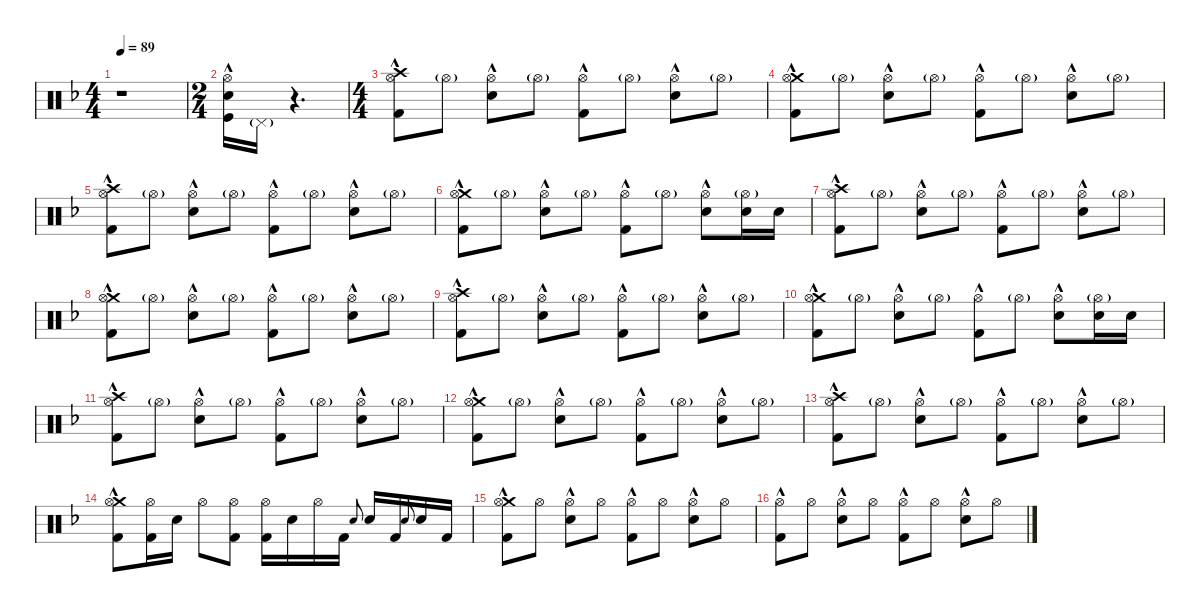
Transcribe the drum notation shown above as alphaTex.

\defaultSystemsLayout 4
\hideDynamics
\bracketExtendMode nobrackets
\singleTrackTrackNamePolicy hidden
\multiTrackTrackNamePolicy hidden
\firstSystemTrackNameMode fullname
\firstSystemTrackNameOrientation horizontal
\otherSystemsTrackNameOrientation horizontal
\track ("Martin Lopez - Drums" "drm.") {instrument percussion}
\staff {score}
\articulation defaults
\ts (4 4)
\beaming (8 2 2 2 2)
\tempo 89
\clef neutral
\ks f
r.1{dy mf beam Down} |
\ts (2 4)
\beaming (8 2 2 2 2)
("Hi-Hat (open)"{hac acc forcenatural} "Snare (hit) 2"{hac acc forcenatural} "Kick (hit)"{hac acc forcenatural}).16{beam Down} "Pedal Hi-Hat (hit)"{g acc forcenatural}.16{dy mp beam Down} r.4{d beam Down} |
\ts (4 4)
\beaming (8 2 2 2 2)
("Crash high (hit)"{acc forcenatural} "Hi-Hat (open)"{acc forcenatural} "Kick (hit) 2"{hac acc forcenatural}).8{dy mf beam Down} "Hi-Hat (open)"{g acc forcenatural}.8{dy mp beam Down} ("Hi-Hat (open)"{acc forcenatural} "Snare (hit) 2"{hac acc forcenatural}).8{dy mf beam Down} "Hi-Hat (open)"{g acc forcenatural}.8{dy mp beam Down} ("Hi-Hat (open)"{acc forcenatural} "Kick (hit) 2"{hac acc forcenatural}).8{dy mf beam Down} "Hi-Hat (open)"{g acc forcenatural}.8{dy mp beam Down} ("Hi-Hat (open)"{acc forcenatural} "Snare (hit) 2"{hac acc forcenatural}).8{dy mf beam Down} "Hi-Hat (open)"{g acc forcenatural}.8{dy mp beam Down} |
("Crash medium (hit)"{acc forcenatural} "Hi-Hat (open)"{acc forcenatural} "Kick (hit) 2"{hac acc forcenatural}).8{dy mf beam Down} "Hi-Hat (open)"{g acc forcenatural}.8{dy mp beam Down} ("Hi-Hat (open)"{acc forcenatural} "Snare (hit) 2"{hac acc forcenatural}).8{dy mf beam Down} "Hi-Hat (open)"{g acc forcenatural}.8{dy mp beam Down} ("Hi-Hat (open)"{acc forcenatural} "Kick (hit) 2"{hac acc forcenatural}).8{dy mf beam Down} "Hi-Hat (open)"{g acc forcenatural}.8{dy mp beam Down} ("Hi-Hat (open)"{acc forcenatural} "Snare (hit) 2"{hac acc forcenatural}).8{dy mf beam Down} "Hi-Hat (open)"{g acc forcenatural}.8{dy mp beam Down} |
("Crash high (hit)"{acc forcenatural} "Hi-Hat (open)"{acc forcenatural} "Kick (hit) 2"{hac acc forcenatural}).8{dy mf beam Down} "Hi-Hat (open)"{g acc forcenatural}.8{dy mp beam Down} ("Hi-Hat (open)"{acc forcenatural} "Snare (hit) 2"{hac acc forcenatural}).8{dy mf beam Down} "Hi-Hat (open)"{g acc forcenatural}.8{dy mp beam Down} ("Hi-Hat (open)"{acc forcenatural} "Kick (hit) 2"{hac acc forcenatural}).8{dy mf beam Down} "Hi-Hat (open)"{g acc forcenatural}.8{dy mp beam Down} ("Hi-Hat (open)"{acc forcenatural} "Snare (hit) 2"{hac acc forcenatural}).8{dy mf beam Down} "Hi-Hat (open)"{g acc forcenatural}.8{dy mp beam Down} |
("Crash medium (hit)"{acc forcenatural} "Hi-Hat (open)"{acc forcenatural} "Kick (hit) 2"{hac acc forcenatural}).8{dy mf beam Down} "Hi-Hat (open)"{g acc forcenatural}.8{dy mp beam Down} ("Hi-Hat (open)"{acc forcenatural} "Snare (hit) 2"{hac acc forcenatural}).8{dy mf beam Down} "Hi-Hat (open)"{g acc forcenatural}.8{dy mp beam Down} ("Hi-Hat (open)"{acc forcenatural} "Kick (hit) 2"{hac acc forcenatural}).8{dy mf beam Down} "Hi-Hat (open)"{g acc forcenatural}.8{dy mp beam Down} ("Hi-Hat (open)"{acc forcenatural} "Snare (hit) 2"{hac acc forcenatural}).8{dy mf beam Down} ("Hi-Hat (open)"{g acc forcenatural} "Snare (hit) 2"{acc forcenatural}).16{beam Down} "Snare (hit) 2"{acc forcenatural}.16{beam Down} |
("Crash high (hit)"{acc forcenatural} "Hi-Hat (open)"{acc forcenatural} "Kick (hit) 2"{hac acc forcenatural}).8{beam Down} "Hi-Hat (open)"{g acc forcenatural}.8{dy mp beam Down} ("Hi-Hat (open)"{acc forcenatural} "Snare (hit) 2"{hac acc forcenatural}).8{dy mf beam Down} "Hi-Hat (open)"{g acc forcenatural}.8{dy mp beam Down} ("Hi-Hat (open)"{acc forcenatural} "Kick (hit) 2"{hac acc forcenatural}).8{dy mf beam Down} "Hi-Hat (open)"{g acc forcenatural}.8{dy mp beam Down} ("Hi-Hat (open)"{acc forcenatural} "Snare (hit) 2"{hac acc forcenatural}).8{dy mf beam Down} "Hi-Hat (open)"{g acc forcenatural}.8{dy mp beam Down} |
("Crash medium (hit)"{acc forcenatural} "Hi-Hat (open)"{acc forcenatural} "Kick (hit) 2"{hac acc forcenatural}).8{dy mf beam Down} "Hi-Hat (open)"{g acc forcenatural}.8{dy mp beam Down} ("Hi-Hat (open)"{acc forcenatural} "Snare (hit) 2"{hac acc forcenatural}).8{dy mf beam Down} "Hi-Hat (open)"{g acc forcenatural}.8{dy mp beam Down} ("Hi-Hat (open)"{acc forcenatural} "Kick (hit) 2"{hac acc forcenatural}).8{dy mf beam Down} "Hi-Hat (open)"{g acc forcenatural}.8{dy mp beam Down} ("Hi-Hat (open)"{acc forcenatural} "Snare (hit) 2"{hac acc forcenatural}).8{dy mf beam Down} "Hi-Hat (open)"{g acc forcenatural}.8{dy mp beam Down} |
("Crash high (hit)"{acc forcenatural} "Hi-Hat (open)"{acc forcenatural} "Kick (hit) 2"{hac acc forcenatural}).8{dy mf beam Down} "Hi-Hat (open)"{g acc forcenatural}.8{dy mp beam Down} ("Hi-Hat (open)"{acc forcenatural} "Snare (hit) 2"{hac acc forcenatural}).8{dy mf beam Down} "Hi-Hat (open)"{g acc forcenatural}.8{dy mp beam Down} ("Hi-Hat (open)"{acc forcenatural} "Kick (hit) 2"{hac acc forcenatural}).8{dy mf beam Down} "Hi-Hat (open)"{g acc forcenatural}.8{dy mp beam Down} ("Hi-Hat (open)"{acc forcenatural} "Snare (hit) 2"{hac acc forcenatural}).8{dy mf beam Down} "Hi-Hat (open)"{g acc forcenatural}.8{dy mp beam Down} |
("Crash medium (hit)"{acc forcenatural} "Hi-Hat (open)"{acc forcenatural} "Kick (hit) 2"{hac acc forcenatural}).8{dy mf beam Down} "Hi-Hat (open)"{g acc forcenatural}.8{dy mp beam Down} ("Hi-Hat (open)"{acc forcenatural} "Snare (hit) 2"{hac acc forcenatural}).8{dy mf beam Down} "Hi-Hat (open)"{g acc forcenatural}.8{dy mp beam Down} ("Hi-Hat (open)"{acc forcenatural} "Kick (hit) 2"{hac acc forcenatural}).8{dy mf beam Down} "Hi-Hat (open)"{g acc forcenatural}.8{dy mp beam Down} ("Hi-Hat (open)"{acc forcenatural} "Snare (hit) 2"{hac acc forcenatural}).8{dy mf beam Down} ("Hi-Hat (open)"{g acc forcenatural} "Snare (hit) 2"{acc forcenatural}).16{beam Down} "Snare (hit) 2"{acc forcenatural}.16{beam Down} |
("Crash high (hit)"{acc forcenatural} "Hi-Hat (open)"{acc forcenatural} "Kick (hit) 2"{hac acc forcenatural}).8{beam Down} "Hi-Hat (open)"{g acc forcenatural}.8{dy mp beam Down} ("Hi-Hat (open)"{acc forcenatural} "Snare (hit) 2"{hac acc forcenatural}).8{dy mf beam Down} "Hi-Hat (open)"{g acc forcenatural}.8{dy mp beam Down} ("Hi-Hat (open)"{acc forcenatural} "Kick (hit) 2"{hac acc forcenatural}).8{dy mf beam Down} "Hi-Hat (open)"{g acc forcenatural}.8{dy mp beam Down} ("Hi-Hat (open)"{acc forcenatural} "Snare (hit) 2"{hac acc forcenatural}).8{dy mf beam Down} "Hi-Hat (open)"{g acc forcenatural}.8{dy mp beam Down} |
("Crash medium (hit)"{acc forcenatural} "Hi-Hat (open)"{acc forcenatural} "Kick (hit) 2"{hac acc forcenatural}).8{dy mf beam Down} "Hi-Hat (open)"{g acc forcenatural}.8{dy mp beam Down} ("Hi-Hat (open)"{acc forcenatural} "Snare (hit) 2"{hac acc forcenatural}).8{dy mf beam Down} "Hi-Hat (open)"{g acc forcenatural}.8{dy mp beam Down} ("Hi-Hat (open)"{acc forcenatural} "Kick (hit) 2"{hac acc forcenatural}).8{dy mf beam Down} "Hi-Hat (open)"{g acc forcenatural}.8{dy mp beam Down} ("Hi-Hat (open)"{acc forcenatural} "Snare (hit) 2"{hac acc forcenatural}).8{dy mf beam Down} "Hi-Hat (open)"{g acc forcenatural}.8{dy mp beam Down} |
("Crash high (hit)"{acc forcenatural} "Hi-Hat (open)"{acc forcenatural} "Kick (hit) 2"{hac acc forcenatural}).8{dy mf beam Down} "Hi-Hat (open)"{g acc forcenatural}.8{dy mp beam Down} ("Hi-Hat (open)"{acc forcenatural} "Snare (hit) 2"{hac acc forcenatural}).8{dy mf beam Down} "Hi-Hat (open)"{g acc forcenatural}.8{dy mp beam Down} ("Hi-Hat (open)"{acc forcenatural} "Kick (hit) 2"{hac acc forcenatural}).8{dy mf beam Down} "Hi-Hat (open)"{g acc forcenatural}.8{dy mp beam Down} ("Hi-Hat (open)"{acc forcenatural} "Snare (hit) 2"{hac acc forcenatural}).8{dy mf beam Down} "Hi-Hat (open)"{g acc forcenatural}.8{dy mp beam Down} |
("Crash medium (hit)"{acc forcenatural} "Hi-Hat (open)"{acc forcenatural} "Kick (hit) 2"{hac acc forcenatural}).8{dy mf beam Down} ("Hi-Hat (open)"{acc forcenatural} "Kick (hit) 2"{acc forcenatural}).16{beam Down} "Snare (hit) 2"{acc forcenatural}.16{beam Down} "Hi-Hat (open)"{acc forcenatural}.8{beam Down} ("Hi-Hat (open)"{acc forcenatural} "Kick (hit) 2"{acc forcenatural}).8{beam Down} ("Hi-Hat (open)"{acc forcenatural} "Kick (hit) 2"{acc forcenatural}).16{beam Down} "Snare (hit) 2"{acc forcenatural}.16{beam Down} "Hi-Hat (open)"{acc forcenatural}.16{beam Down} "Kick (hit) 2"{acc forcenatural}.16{beam Down} "Electric Snare (hit)"{acc forcenatural}.8{gr onbeat dy mp beam Up} "Snare (hit) 2"{acc forcenatural}.16{dy mf beam Up} "Kick (hit) 2"{acc forcenatural}.16{beam Up} "Electric Snare (hit)"{acc forcenatural}.8{gr onbeat dy mp beam Up} "Snare (hit) 2"{acc forcenatural}.16{dy mf beam Up} "Kick (hit) 2"{acc forcenatural}.16{beam Up} |
("Crash medium (hit)"{acc forcenatural} "Hi-Hat (open)"{acc forcenatural} "Kick (hit) 2"{hac acc forcenatural}).8{beam Down} "Hi-Hat (open)"{acc forcenatural}.8{beam Down} ("Hi-Hat (open)"{acc forcenatural} "Snare (hit) 2"{hac acc forcenatural}).8{beam Down} "Hi-Hat (open)"{acc forcenatural}.8{beam Down} ("Hi-Hat (open)"{acc forcenatural} "Kick (hit) 2"{hac acc forcenatural}).8{beam Down} "Hi-Hat (open)"{acc forcenatural}.8{beam Down} ("Hi-Hat (open)"{acc forcenatural} "Snare (hit) 2"{hac acc forcenatural}).8{beam Down} "Hi-Hat (open)"{acc forcenatural}.8{beam Down} |
("Hi-Hat (open)"{acc forcenatural} "Kick (hit) 2"{hac acc forcenatural}).8{beam Down} "Hi-Hat (open)"{acc forcenatural}.8{beam Down} ("Hi-Hat (open)"{acc forcenatural} "Snare (hit) 2"{hac acc forcenatural}).8{beam Down} "Hi-Hat (open)"{acc forcenatural}.8{beam Down} ("Hi-Hat (open)"{acc forcenatural} "Kick (hit) 2"{hac acc forcenatural}).8{beam Down} "Hi-Hat (open)"{acc forcenatural}.8{beam Down} ("Hi-Hat (open)"{acc forcenatural} "Snare (hit) 2"{hac acc forcenatural}).8{beam Down} "Hi-Hat (open)"{acc forcenatural}.8{beam Down}
